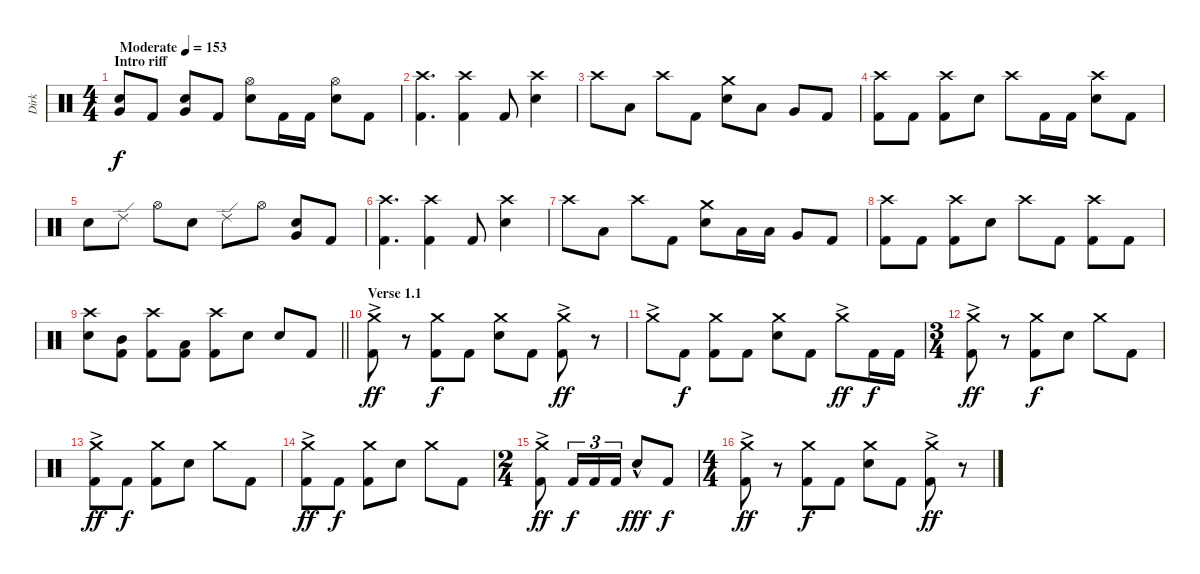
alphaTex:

\track ("Dirk" "Dirk") {instrument percussion}
\staff {score}
\articulation defaults
\ts (4 4)
\section ("" "Intro riff")
\tempo (153 "Moderate")
\clef neutral
\ks c
("Very Low Tom (hit)" "Electric Snare (hit)").8{dy f} "Kick (hit) 2".8 ("Very Low Tom (hit)" "Electric Snare (hit)").8 "Kick (hit) 2".8 ("Hi-Hat (open)" "Electric Snare (hit)").8 "Kick (hit) 2".16 "Kick (hit) 2".16 ("Hi-Hat (open)" "Electric Snare (hit)").8 "Kick (hit) 2".8 |
("Crash high (hit)" "Kick (hit) 2").4{d} ("Crash high (hit)" "Kick (hit) 2").4 "Kick (hit) 2".8 ("Crash high (hit)" "Electric Snare (hit)").4 |
"Crash high (hit)".8 "Low Tom (hit)".8 "Crash high (hit)".8 "Kick (hit) 2".8 ("Crash medium (hit)" "Electric Snare (hit)").8 "Low Tom (hit)".8 "Very Low Tom (hit)".8 "Kick (hit) 2".8 |
("Crash high (hit)" "Kick (hit) 2").8 "Kick (hit) 2".8 ("Crash high (hit)" "Kick (hit) 2").8 "Electric Snare (hit)".8 "Crash high (hit)".8 "Kick (hit) 2".16 "Kick (hit) 2".16 ("Crash high (hit)" "Electric Snare (hit)").8 "Kick (hit) 2".8 |
"Electric Snare (hit)".8 "Ride (edge) 2".8 "Hi-Hat (open)".8 "Electric Snare (hit)".8 "Ride (edge) 2".8 "Hi-Hat (open)".8 ("Very Low Tom (hit)" "Electric Snare (hit)").8 "Kick (hit) 2".8 |
("Crash high (hit)" "Kick (hit) 2").4{d} ("Crash high (hit)" "Kick (hit) 2").4 "Kick (hit) 2".8 ("Crash high (hit)" "Electric Snare (hit)").4 |
"Crash high (hit)".8 "Low Tom (hit)".8 "Crash high (hit)".8 "Kick (hit) 2".8 ("Crash medium (hit)" "Electric Snare (hit)").8 "Low Tom (hit)".16 "Low Tom (hit)".16 "Very Low Tom (hit)".8 "Kick (hit) 2".8 |
("Crash high (hit)" "Kick (hit) 2").8 "Kick (hit) 2".8 ("Crash high (hit)" "Kick (hit) 2").8 "Electric Snare (hit)".8 "Crash high (hit)".8 "Kick (hit) 2".8 ("Crash high (hit)" "Kick (hit) 2").8 "Kick (hit) 2".8 |
\barLineRight lightlight
("Crash high (hit)" "Electric Snare (hit)").8 ("Mid Tom (hit)" "Kick (hit) 2").8 ("Crash high (hit)" "Kick (hit) 2").8 ("Low Tom (hit)" "Kick (hit) 2").8 ("Crash high (hit)" "Kick (hit) 2").8 "Electric Snare (hit)".8 "Electric Snare (hit)".8 "Kick (hit) 2".8 |
\section ("" "Verse 1.1")
("Crash medium (hit)"{ac} "Kick (hit) 2").8{dy ff} r.8 ("Crash medium (hit)" "Kick (hit) 2").8{dy f} "Kick (hit) 2".8 ("Crash medium (hit)" "Electric Snare (hit)").8 "Kick (hit) 2".8 ("Crash medium (hit)"{ac} "Kick (hit) 2").8{dy ff} r.8 |
"Crash medium (hit)"{ac}.8 "Kick (hit) 2".8{dy f} ("Crash medium (hit)" "Kick (hit) 2").8 "Kick (hit) 2".8 ("Crash medium (hit)" "Electric Snare (hit)").8 "Kick (hit) 2".8 "Crash medium (hit)"{ac}.8{dy ff} "Kick (hit) 2".16{dy f} "Kick (hit) 2".16 |
\ts (3 4)
("Crash medium (hit)"{ac} "Kick (hit) 2").8{dy ff} r.8 ("Crash medium (hit)" "Kick (hit) 2").8{dy f} "Electric Snare (hit)".8 "Crash medium (hit)".8 "Kick (hit) 2".8 |
("Crash medium (hit)"{ac} "Kick (hit) 2").8{dy ff} "Kick (hit) 2".8{dy f} ("Crash medium (hit)" "Kick (hit) 2").8 "Electric Snare (hit)".8 "Crash medium (hit)".8 "Kick (hit) 2".8 |
("Crash medium (hit)"{ac} "Kick (hit) 2").8{dy ff} "Kick (hit) 2".8{dy f} ("Crash medium (hit)" "Kick (hit) 2").8 "Electric Snare (hit)".8 "Crash medium (hit)".8 "Kick (hit) 2".8 |
\ts (2 4)
("Crash medium (hit)"{ac} "Kick (hit) 2").8{dy ff} "Kick (hit) 2".16{tu (3 2) dy f} "Kick (hit) 2".16{tu (3 2)} "Kick (hit) 2".16{tu (3 2)} "Electric Snare (hit)"{hac}.8{dy fff} "Kick (hit) 2".8{dy f} |
\ts (4 4)
("Crash medium (hit)"{ac} "Kick (hit) 2").8{dy ff} r.8 ("Crash medium (hit)" "Kick (hit) 2").8{dy f} "Kick (hit) 2".8 ("Crash medium (hit)" "Electric Snare (hit)").8 "Kick (hit) 2".8 ("Crash medium (hit)"{ac} "Kick (hit) 2").8{dy ff} r.8
